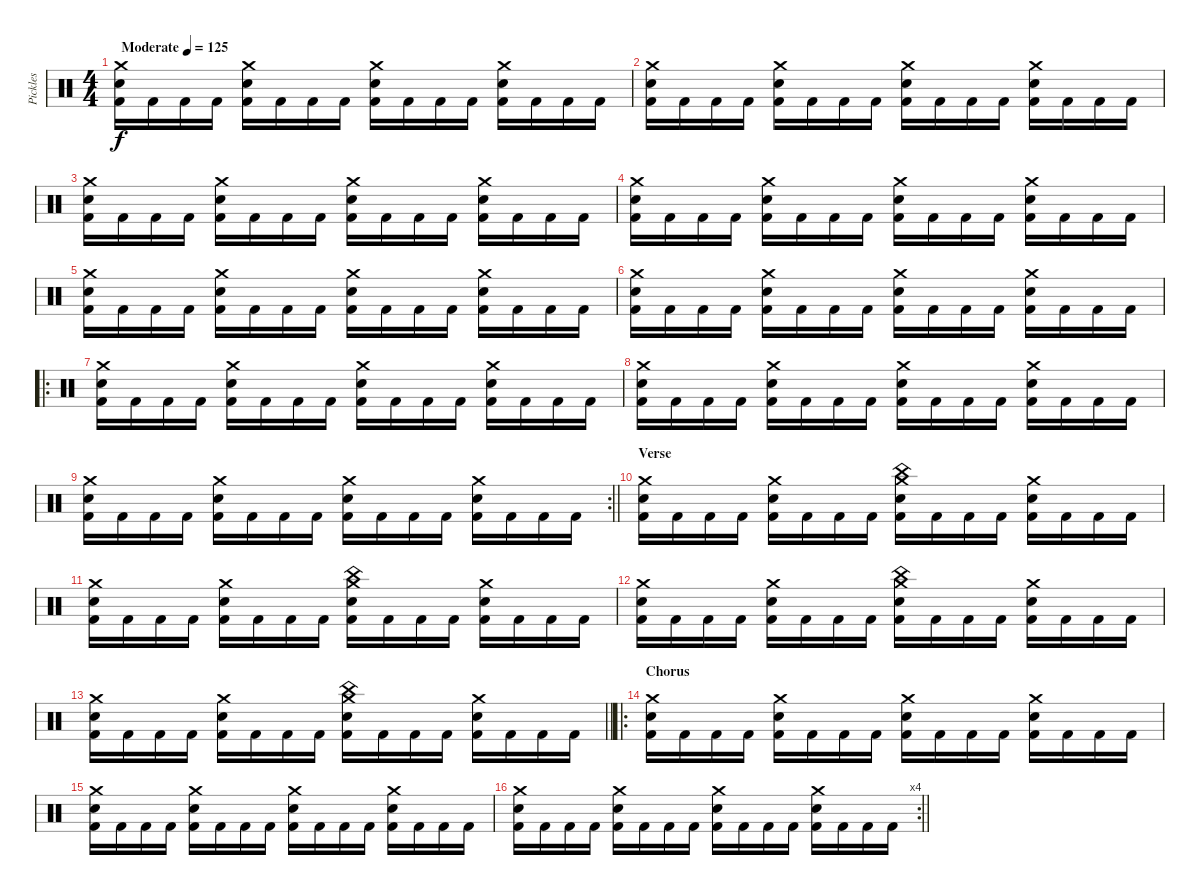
\track ("Pickles" "Pickles") {instrument percussion}
\staff {score}
\articulation defaults
\ts (4 4)
\tempo (125 "Moderate")
\clef neutral
\ks c
("Crash medium (hit)" "Electric Snare (hit)" "Kick (hit) 2").16{dy f} "Kick (hit) 2".16 "Kick (hit) 2".16 "Kick (hit) 2".16 ("Crash medium (hit)" "Electric Snare (hit)" "Kick (hit) 2").16 "Kick (hit) 2".16 "Kick (hit) 2".16 "Kick (hit) 2".16 ("Crash medium (hit)" "Electric Snare (hit)" "Kick (hit) 2").16 "Kick (hit) 2".16 "Kick (hit) 2".16 "Kick (hit) 2".16 ("Crash medium (hit)" "Electric Snare (hit)" "Kick (hit) 2").16 "Kick (hit) 2".16 "Kick (hit) 2".16 "Kick (hit) 2".16 |
("Crash medium (hit)" "Electric Snare (hit)" "Kick (hit) 2").16 "Kick (hit) 2".16 "Kick (hit) 2".16 "Kick (hit) 2".16 ("Crash medium (hit)" "Electric Snare (hit)" "Kick (hit) 2").16 "Kick (hit) 2".16 "Kick (hit) 2".16 "Kick (hit) 2".16 ("Crash medium (hit)" "Electric Snare (hit)" "Kick (hit) 2").16 "Kick (hit) 2".16 "Kick (hit) 2".16 "Kick (hit) 2".16 ("Crash medium (hit)" "Electric Snare (hit)" "Kick (hit) 2").16 "Kick (hit) 2".16 "Kick (hit) 2".16 "Kick (hit) 2".16 |
("Crash medium (hit)" "Electric Snare (hit)" "Kick (hit) 2").16 "Kick (hit) 2".16 "Kick (hit) 2".16 "Kick (hit) 2".16 ("Crash medium (hit)" "Electric Snare (hit)" "Kick (hit) 2").16 "Kick (hit) 2".16 "Kick (hit) 2".16 "Kick (hit) 2".16 ("Crash medium (hit)" "Electric Snare (hit)" "Kick (hit) 2").16 "Kick (hit) 2".16 "Kick (hit) 2".16 "Kick (hit) 2".16 ("Crash medium (hit)" "Electric Snare (hit)" "Kick (hit) 2").16 "Kick (hit) 2".16 "Kick (hit) 2".16 "Kick (hit) 2".16 |
("Crash medium (hit)" "Electric Snare (hit)" "Kick (hit) 2").16 "Kick (hit) 2".16 "Kick (hit) 2".16 "Kick (hit) 2".16 ("Crash medium (hit)" "Electric Snare (hit)" "Kick (hit) 2").16 "Kick (hit) 2".16 "Kick (hit) 2".16 "Kick (hit) 2".16 ("Crash medium (hit)" "Electric Snare (hit)" "Kick (hit) 2").16 "Kick (hit) 2".16 "Kick (hit) 2".16 "Kick (hit) 2".16 ("Crash medium (hit)" "Electric Snare (hit)" "Kick (hit) 2").16 "Kick (hit) 2".16 "Kick (hit) 2".16 "Kick (hit) 2".16 |
("Crash medium (hit)" "Electric Snare (hit)" "Kick (hit) 2").16 "Kick (hit) 2".16 "Kick (hit) 2".16 "Kick (hit) 2".16 ("Crash medium (hit)" "Electric Snare (hit)" "Kick (hit) 2").16 "Kick (hit) 2".16 "Kick (hit) 2".16 "Kick (hit) 2".16 ("Crash medium (hit)" "Electric Snare (hit)" "Kick (hit) 2").16 "Kick (hit) 2".16 "Kick (hit) 2".16 "Kick (hit) 2".16 ("Crash medium (hit)" "Electric Snare (hit)" "Kick (hit) 2").16 "Kick (hit) 2".16 "Kick (hit) 2".16 "Kick (hit) 2".16 |
("Crash medium (hit)" "Electric Snare (hit)" "Kick (hit) 2").16 "Kick (hit) 2".16 "Kick (hit) 2".16 "Kick (hit) 2".16 ("Crash medium (hit)" "Electric Snare (hit)" "Kick (hit) 2").16 "Kick (hit) 2".16 "Kick (hit) 2".16 "Kick (hit) 2".16 ("Crash medium (hit)" "Electric Snare (hit)" "Kick (hit) 2").16 "Kick (hit) 2".16 "Kick (hit) 2".16 "Kick (hit) 2".16 ("Crash medium (hit)" "Electric Snare (hit)" "Kick (hit) 2").16 "Kick (hit) 2".16 "Kick (hit) 2".16 "Kick (hit) 2".16 |
\ro
("Crash medium (hit)" "Electric Snare (hit)" "Kick (hit) 2").16 "Kick (hit) 2".16 "Kick (hit) 2".16 "Kick (hit) 2".16 ("Crash medium (hit)" "Electric Snare (hit)" "Kick (hit) 2").16 "Kick (hit) 2".16 "Kick (hit) 2".16 "Kick (hit) 2".16 ("Crash medium (hit)" "Electric Snare (hit)" "Kick (hit) 2").16 "Kick (hit) 2".16 "Kick (hit) 2".16 "Kick (hit) 2".16 ("Crash medium (hit)" "Electric Snare (hit)" "Kick (hit) 2").16 "Kick (hit) 2".16 "Kick (hit) 2".16 "Kick (hit) 2".16 |
("Crash medium (hit)" "Electric Snare (hit)" "Kick (hit) 2").16 "Kick (hit) 2".16 "Kick (hit) 2".16 "Kick (hit) 2".16 ("Crash medium (hit)" "Electric Snare (hit)" "Kick (hit) 2").16 "Kick (hit) 2".16 "Kick (hit) 2".16 "Kick (hit) 2".16 ("Crash medium (hit)" "Electric Snare (hit)" "Kick (hit) 2").16 "Kick (hit) 2".16 "Kick (hit) 2".16 "Kick (hit) 2".16 ("Crash medium (hit)" "Electric Snare (hit)" "Kick (hit) 2").16 "Kick (hit) 2".16 "Kick (hit) 2".16 "Kick (hit) 2".16 |
\rc 2
\barLineRight lightlight
("Crash medium (hit)" "Electric Snare (hit)" "Kick (hit) 2").16 "Kick (hit) 2".16 "Kick (hit) 2".16 "Kick (hit) 2".16 ("Crash medium (hit)" "Electric Snare (hit)" "Kick (hit) 2").16 "Kick (hit) 2".16 "Kick (hit) 2".16 "Kick (hit) 2".16 ("Crash medium (hit)" "Electric Snare (hit)" "Kick (hit) 2").16 "Kick (hit) 2".16 "Kick (hit) 2".16 "Kick (hit) 2".16 ("Crash medium (hit)" "Electric Snare (hit)" "Kick (hit) 2").16 "Kick (hit) 2".16 "Kick (hit) 2".16 "Kick (hit) 2".16 |
\section ("" "Verse")
("Crash medium (hit)" "Electric Snare (hit)" "Kick (hit) 2").16 "Kick (hit) 2".16 "Kick (hit) 2".16 "Kick (hit) 2".16 ("Crash medium (hit)" "Electric Snare (hit)" "Kick (hit) 2").16 "Kick (hit) 2".16 "Kick (hit) 2".16 "Kick (hit) 2".16 ("Crash medium (hit)" "China (hit)" "Electric Snare (hit)" "Kick (hit) 2").16 "Kick (hit) 2".16 "Kick (hit) 2".16 "Kick (hit) 2".16 ("Crash medium (hit)" "Electric Snare (hit)" "Kick (hit) 2").16 "Kick (hit) 2".16 "Kick (hit) 2".16 "Kick (hit) 2".16 |
("Crash medium (hit)" "Electric Snare (hit)" "Kick (hit) 2").16 "Kick (hit) 2".16 "Kick (hit) 2".16 "Kick (hit) 2".16 ("Crash medium (hit)" "Electric Snare (hit)" "Kick (hit) 2").16 "Kick (hit) 2".16 "Kick (hit) 2".16 "Kick (hit) 2".16 ("Crash medium (hit)" "China (hit)" "Electric Snare (hit)" "Kick (hit) 2").16 "Kick (hit) 2".16 "Kick (hit) 2".16 "Kick (hit) 2".16 ("Crash medium (hit)" "Electric Snare (hit)" "Kick (hit) 2").16 "Kick (hit) 2".16 "Kick (hit) 2".16 "Kick (hit) 2".16 |
("Crash medium (hit)" "Electric Snare (hit)" "Kick (hit) 2").16 "Kick (hit) 2".16 "Kick (hit) 2".16 "Kick (hit) 2".16 ("Crash medium (hit)" "Electric Snare (hit)" "Kick (hit) 2").16 "Kick (hit) 2".16 "Kick (hit) 2".16 "Kick (hit) 2".16 ("Crash medium (hit)" "China (hit)" "Electric Snare (hit)" "Kick (hit) 2").16 "Kick (hit) 2".16 "Kick (hit) 2".16 "Kick (hit) 2".16 ("Crash medium (hit)" "Electric Snare (hit)" "Kick (hit) 2").16 "Kick (hit) 2".16 "Kick (hit) 2".16 "Kick (hit) 2".16 |
\barLineRight lightlight
("Crash medium (hit)" "Electric Snare (hit)" "Kick (hit) 2").16 "Kick (hit) 2".16 "Kick (hit) 2".16 "Kick (hit) 2".16 ("Crash medium (hit)" "Electric Snare (hit)" "Kick (hit) 2").16 "Kick (hit) 2".16 "Kick (hit) 2".16 "Kick (hit) 2".16 ("Crash medium (hit)" "China (hit)" "Electric Snare (hit)" "Kick (hit) 2").16 "Kick (hit) 2".16 "Kick (hit) 2".16 "Kick (hit) 2".16 ("Crash medium (hit)" "Electric Snare (hit)" "Kick (hit) 2").16 "Kick (hit) 2".16 "Kick (hit) 2".16 "Kick (hit) 2".16 |
\ro
\section ("" "Chorus")
("Crash medium (hit)" "Electric Snare (hit)" "Kick (hit) 2").16 "Kick (hit) 2".16 "Kick (hit) 2".16 "Kick (hit) 2".16 ("Crash medium (hit)" "Electric Snare (hit)" "Kick (hit) 2").16 "Kick (hit) 2".16 "Kick (hit) 2".16 "Kick (hit) 2".16 ("Crash medium (hit)" "Electric Snare (hit)" "Kick (hit) 2").16 "Kick (hit) 2".16 "Kick (hit) 2".16 "Kick (hit) 2".16 ("Crash medium (hit)" "Electric Snare (hit)" "Kick (hit) 2").16 "Kick (hit) 2".16 "Kick (hit) 2".16 "Kick (hit) 2".16 |
("Crash medium (hit)" "Electric Snare (hit)" "Kick (hit) 2").16 "Kick (hit) 2".16 "Kick (hit) 2".16 "Kick (hit) 2".16 ("Crash medium (hit)" "Electric Snare (hit)" "Kick (hit) 2").16 "Kick (hit) 2".16 "Kick (hit) 2".16 "Kick (hit) 2".16 ("Crash medium (hit)" "Electric Snare (hit)" "Kick (hit) 2").16 "Kick (hit) 2".16 "Kick (hit) 2".16 "Kick (hit) 2".16 ("Crash medium (hit)" "Electric Snare (hit)" "Kick (hit) 2").16 "Kick (hit) 2".16 "Kick (hit) 2".16 "Kick (hit) 2".16 |
\rc 4
\barLineRight lightlight
("Crash medium (hit)" "Electric Snare (hit)" "Kick (hit) 2").16 "Kick (hit) 2".16 "Kick (hit) 2".16 "Kick (hit) 2".16 ("Crash medium (hit)" "Electric Snare (hit)" "Kick (hit) 2").16 "Kick (hit) 2".16 "Kick (hit) 2".16 "Kick (hit) 2".16 ("Crash medium (hit)" "Electric Snare (hit)" "Kick (hit) 2").16 "Kick (hit) 2".16 "Kick (hit) 2".16 "Kick (hit) 2".16 ("Crash medium (hit)" "Electric Snare (hit)" "Kick (hit) 2").16 "Kick (hit) 2".16 "Kick (hit) 2".16 "Kick (hit) 2".16
